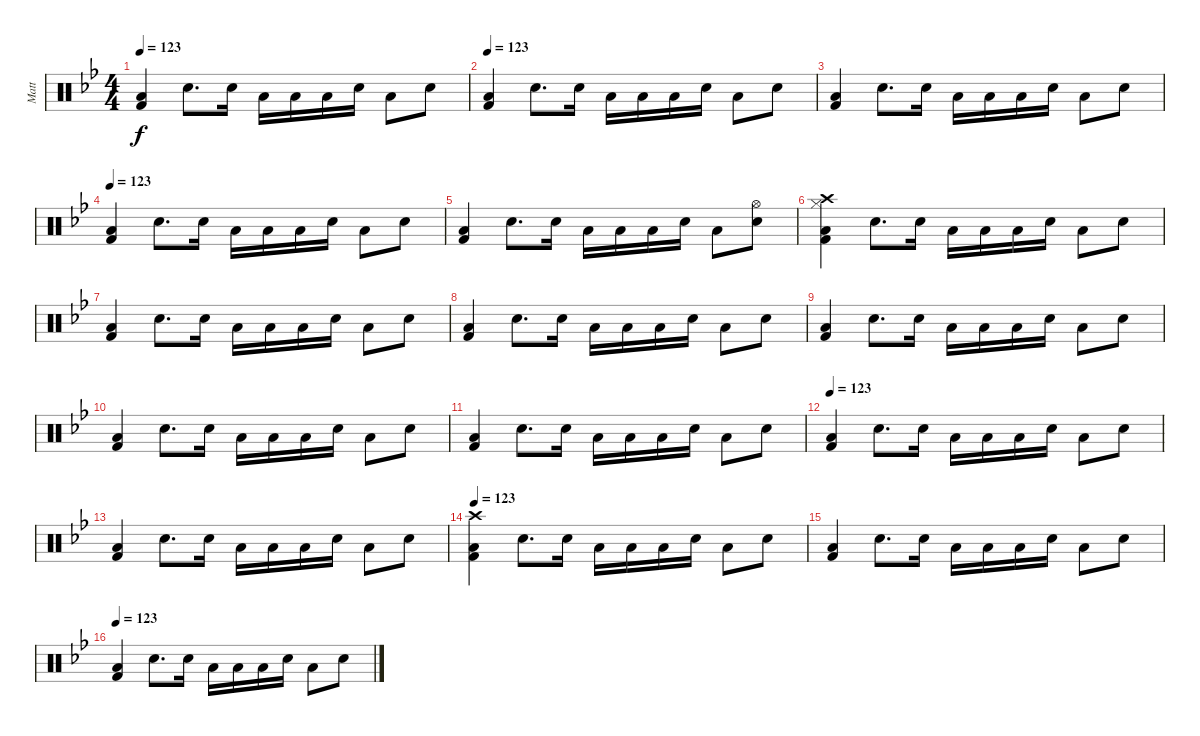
\track ("Matt" "Matt") {instrument percussion}
\staff {score}
\articulation defaults
\ts (4 4)
\tempo 123
\clef neutral
\ks bb
("Low Floor Tom (hit)" "Kick (hit) 2").4{dy f} "Snare (hit) 2".8{d} "Snare (hit) 2".16 "Low Floor Tom (hit)".16 "Low Floor Tom (hit)".16 "Low Floor Tom (hit)".16 "Snare (hit) 2".16 "Low Floor Tom (hit)".8 "Snare (hit) 2".8 |
\tempo 123
("Low Floor Tom (hit)" "Kick (hit) 2").4 "Snare (hit) 2".8{d} "Snare (hit) 2".16 "Low Floor Tom (hit)".16 "Low Floor Tom (hit)".16 "Low Floor Tom (hit)".16 "Snare (hit) 2".16 "Low Floor Tom (hit)".8 "Snare (hit) 2".8 |
("Low Floor Tom (hit)" "Kick (hit) 2").4 "Snare (hit) 2".8{d} "Snare (hit) 2".16 "Low Floor Tom (hit)".16 "Low Floor Tom (hit)".16 "Low Floor Tom (hit)".16 "Snare (hit) 2".16 "Low Floor Tom (hit)".8 "Snare (hit) 2".8 |
\tempo 123
("Low Floor Tom (hit)" "Kick (hit) 2").4 "Snare (hit) 2".8{d} "Snare (hit) 2".16 "Low Floor Tom (hit)".16 "Low Floor Tom (hit)".16 "Low Floor Tom (hit)".16 "Snare (hit) 2".16 "Low Floor Tom (hit)".8 "Snare (hit) 2".8 |
("Low Floor Tom (hit)" "Kick (hit) 2").4 "Snare (hit) 2".8{d} "Snare (hit) 2".16 "Low Floor Tom (hit)".16 "Low Floor Tom (hit)".16 "Low Floor Tom (hit)".16 "Snare (hit) 2".16 "Low Floor Tom (hit)".8 ("Snare (hit) 2" "Hi-Hat (open)").8 |
("Low Floor Tom (hit)" "Kick (hit) 2" "Hi-Hat (closed)" "Crash high (hit)").4 "Snare (hit) 2".8{d} "Snare (hit) 2".16 "Low Floor Tom (hit)".16 "Low Floor Tom (hit)".16 "Low Floor Tom (hit)".16 "Snare (hit) 2".16 "Low Floor Tom (hit)".8 "Snare (hit) 2".8 |
("Low Floor Tom (hit)" "Kick (hit) 2").4 "Snare (hit) 2".8{d} "Snare (hit) 2".16 "Low Floor Tom (hit)".16 "Low Floor Tom (hit)".16 "Low Floor Tom (hit)".16 "Snare (hit) 2".16 "Low Floor Tom (hit)".8 "Snare (hit) 2".8 |
("Low Floor Tom (hit)" "Kick (hit) 2").4 "Snare (hit) 2".8{d} "Snare (hit) 2".16 "Low Floor Tom (hit)".16 "Low Floor Tom (hit)".16 "Low Floor Tom (hit)".16 "Snare (hit) 2".16 "Low Floor Tom (hit)".8 "Snare (hit) 2".8 |
("Low Floor Tom (hit)" "Kick (hit) 2").4 "Snare (hit) 2".8{d} "Snare (hit) 2".16 "Low Floor Tom (hit)".16 "Low Floor Tom (hit)".16 "Low Floor Tom (hit)".16 "Snare (hit) 2".16 "Low Floor Tom (hit)".8 "Snare (hit) 2".8 |
("Low Floor Tom (hit)" "Kick (hit) 2").4 "Snare (hit) 2".8{d} "Snare (hit) 2".16 "Low Floor Tom (hit)".16 "Low Floor Tom (hit)".16 "Low Floor Tom (hit)".16 "Snare (hit) 2".16 "Low Floor Tom (hit)".8 "Snare (hit) 2".8 |
("Low Floor Tom (hit)" "Kick (hit) 2").4 "Snare (hit) 2".8{d} "Snare (hit) 2".16 "Low Floor Tom (hit)".16 "Low Floor Tom (hit)".16 "Low Floor Tom (hit)".16 "Snare (hit) 2".16 "Low Floor Tom (hit)".8 "Snare (hit) 2".8 |
\tempo 123
("Low Floor Tom (hit)" "Kick (hit) 2").4 "Snare (hit) 2".8{d} "Snare (hit) 2".16 "Low Floor Tom (hit)".16 "Low Floor Tom (hit)".16 "Low Floor Tom (hit)".16 "Snare (hit) 2".16 "Low Floor Tom (hit)".8 "Snare (hit) 2".8 |
("Low Floor Tom (hit)" "Kick (hit) 2").4 "Snare (hit) 2".8{d} "Snare (hit) 2".16 "Low Floor Tom (hit)".16 "Low Floor Tom (hit)".16 "Low Floor Tom (hit)".16 "Snare (hit) 2".16 "Low Floor Tom (hit)".8 "Snare (hit) 2".8 |
\tempo 123
("Low Floor Tom (hit)" "Kick (hit) 2" "Crash high (hit)").4 "Snare (hit) 2".8{d} "Snare (hit) 2".16 "Low Floor Tom (hit)".16 "Low Floor Tom (hit)".16 "Low Floor Tom (hit)".16 "Snare (hit) 2".16 "Low Floor Tom (hit)".8 "Snare (hit) 2".8 |
("Low Floor Tom (hit)" "Kick (hit) 2").4 "Snare (hit) 2".8{d} "Snare (hit) 2".16 "Low Floor Tom (hit)".16 "Low Floor Tom (hit)".16 "Low Floor Tom (hit)".16 "Snare (hit) 2".16 "Low Floor Tom (hit)".8 "Snare (hit) 2".8 |
\tempo 123
("Low Floor Tom (hit)" "Kick (hit) 2").4 "Snare (hit) 2".8{d} "Snare (hit) 2".16 "Low Floor Tom (hit)".16 "Low Floor Tom (hit)".16 "Low Floor Tom (hit)".16 "Snare (hit) 2".16 "Low Floor Tom (hit)".8 "Snare (hit) 2".8
